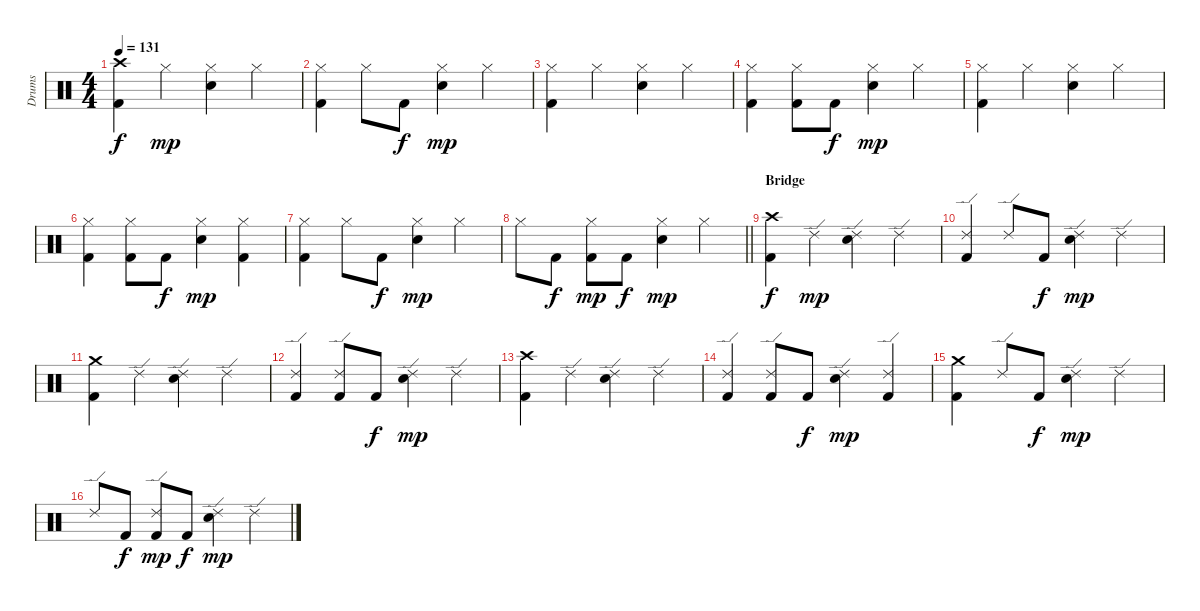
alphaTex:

\track ("Drums" "Drums") {instrument percussion}
\staff {score}
\articulation defaults
\ts (4 4)
\tempo 131
\clef neutral
\ks c
("Crash high (hit)" "Kick (hit) 2").4{dy f} "Hi-Hat (closed)".4{dy mp} ("Hi-Hat (closed)" "Electric Snare (hit)").4 "Hi-Hat (closed)".4 |
("Hi-Hat (closed)" "Kick (hit) 2").4 "Hi-Hat (closed)".8 "Kick (hit) 2".8{dy f} ("Hi-Hat (closed)" "Electric Snare (hit)").4{dy mp} "Hi-Hat (closed)".4 |
("Hi-Hat (closed)" "Kick (hit) 2").4 "Hi-Hat (closed)".4 ("Hi-Hat (closed)" "Electric Snare (hit)").4 "Hi-Hat (closed)".4 |
("Hi-Hat (closed)" "Kick (hit) 2").4 ("Hi-Hat (closed)" "Kick (hit) 2").8 "Kick (hit) 2".8{dy f} ("Hi-Hat (closed)" "Electric Snare (hit)").4{dy mp} "Hi-Hat (closed)".4 |
("Hi-Hat (closed)" "Kick (hit) 2").4 "Hi-Hat (closed)".4 ("Hi-Hat (closed)" "Electric Snare (hit)").4 "Hi-Hat (closed)".4 |
("Hi-Hat (closed)" "Kick (hit) 2").4 ("Hi-Hat (closed)" "Kick (hit) 2").8 "Kick (hit) 2".8{dy f} ("Hi-Hat (closed)" "Electric Snare (hit)").4{dy mp} ("Hi-Hat (closed)" "Kick (hit) 2").4 |
("Hi-Hat (closed)" "Kick (hit) 2").4 "Hi-Hat (closed)".8 "Kick (hit) 2".8{dy f} ("Hi-Hat (closed)" "Electric Snare (hit)").4{dy mp} "Hi-Hat (closed)".4 |
\barLineRight lightlight "Hi-Hat (closed)".8 "Kick (hit) 2".8{dy f}
("Hi-Hat (closed)" "Kick (hit) 2").8{dy mp} "Kick (hit) 2".8{dy f} ("Hi-Hat (closed)" "Electric Snare (hit)").4{dy mp} "Hi-Hat (closed)".4 |
\section ("" "Bridge")
("Crash high (hit)" "Kick (hit) 2").4{dy f} "Ride (edge) 2".4{dy mp} ("Ride (edge) 2" "Electric Snare (hit)").4 "Ride (edge) 2".4 |
("Ride (edge) 2" "Kick (hit) 2").4 "Ride (edge) 2".8 "Kick (hit) 2".8{dy f} ("Ride (edge) 2" "Electric Snare (hit)").4{dy mp} "Ride (edge) 2".4 |
("Crash medium (hit)" "Kick (hit) 2").4 "Ride (edge) 2".4 ("Ride (edge) 2" "Electric Snare (hit)").4 "Ride (edge) 2".4 |
("Ride (edge) 2" "Kick (hit) 2").4 ("Ride (edge) 2" "Kick (hit) 2").8 "Kick (hit) 2".8{dy f} ("Ride (edge) 2" "Electric Snare (hit)").4{dy mp} "Ride (edge) 2".4 |
("Crash high (hit)" "Kick (hit) 2").4 "Ride (edge) 2".4 ("Ride (edge) 2" "Electric Snare (hit)").4 "Ride (edge) 2".4 |
("Ride (edge) 2" "Kick (hit) 2").4 ("Ride (edge) 2" "Kick (hit) 2").8 "Kick (hit) 2".8{dy f} ("Ride (edge) 2" "Electric Snare (hit)").4{dy mp} ("Ride (edge) 2" "Kick (hit) 2").4 |
("Crash medium (hit)" "Kick (hit) 2").4 "Ride (edge) 2".8 "Kick (hit) 2".8{dy f} ("Ride (edge) 2" "Electric Snare (hit)").4{dy mp} "Ride (edge) 2".4 |
"Ride (edge) 2".8 "Kick (hit) 2".8{dy f} ("Ride (edge) 2" "Kick (hit) 2").8{dy mp} "Kick (hit) 2".8{dy f} ("Ride (edge) 2" "Electric Snare (hit)").4{dy mp} "Ride (edge) 2".4
